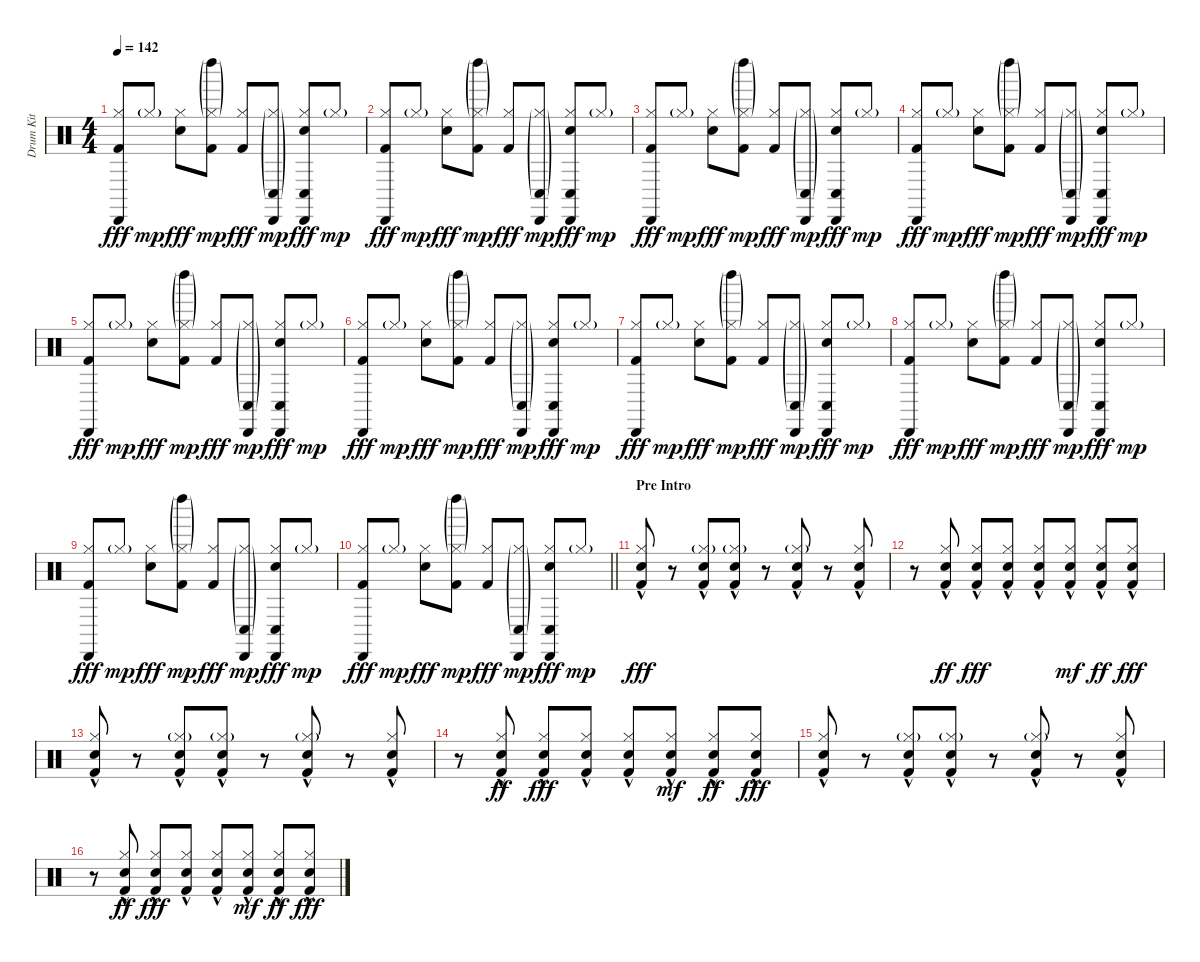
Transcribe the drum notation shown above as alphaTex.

\track ("Drum Kit" "Drum Kit") {instrument percussion}
\staff {score}
\articulation defaults
\ts (4 4)
\tempo 142
\clef neutral
\ks c
("Cabasa (hit)" "Kick (hit) 2" "Hi-Hat (closed)").8{dy fff} "Hi-Hat (closed)"{g}.8{dy mp} ("Snare (hit) 2" "Hi-Hat (closed)").8{dy fff} ("Kick (hit) 2" "Left Maraca (hit)"{g} "Hi-Hat (closed)"{g}).8{dy mp} ("Kick (hit) 2" "Hi-Hat (closed)").8{dy fff} ("Cabasa (hit)" "Conga low (hit)"{g} "Hi-Hat (closed)"{g}).8{dy mp} ("Conga low (hit)" "Snare (hit) 2" "Cabasa (hit)" "Hi-Hat (closed)").8{dy fff} "Hi-Hat (closed)"{g}.8{dy mp} |
("Cabasa (hit)" "Kick (hit) 2" "Hi-Hat (closed)").8{dy fff} "Hi-Hat (closed)"{g}.8{dy mp} ("Snare (hit) 2" "Hi-Hat (closed)").8{dy fff} ("Kick (hit) 2" "Left Maraca (hit)"{g} "Hi-Hat (closed)"{g}).8{dy mp} ("Kick (hit) 2" "Hi-Hat (closed)").8{dy fff} ("Cabasa (hit)" "Conga low (hit)"{g} "Hi-Hat (closed)"{g}).8{dy mp} ("Conga low (hit)" "Snare (hit) 2" "Cabasa (hit)" "Hi-Hat (closed)").8{dy fff} "Hi-Hat (closed)"{g}.8{dy mp} |
("Cabasa (hit)" "Kick (hit) 2" "Hi-Hat (closed)").8{dy fff} "Hi-Hat (closed)"{g}.8{dy mp} ("Snare (hit) 2" "Hi-Hat (closed)").8{dy fff} ("Kick (hit) 2" "Left Maraca (hit)"{g} "Hi-Hat (closed)"{g}).8{dy mp} ("Kick (hit) 2" "Hi-Hat (closed)").8{dy fff} ("Cabasa (hit)" "Conga low (hit)"{g} "Hi-Hat (closed)"{g}).8{dy mp} ("Conga low (hit)" "Snare (hit) 2" "Cabasa (hit)" "Hi-Hat (closed)").8{dy fff} "Hi-Hat (closed)"{g}.8{dy mp} |
("Cabasa (hit)" "Kick (hit) 2" "Hi-Hat (closed)").8{dy fff} "Hi-Hat (closed)"{g}.8{dy mp} ("Snare (hit) 2" "Hi-Hat (closed)").8{dy fff} ("Kick (hit) 2" "Left Maraca (hit)"{g} "Hi-Hat (closed)"{g}).8{dy mp} ("Kick (hit) 2" "Hi-Hat (closed)").8{dy fff} ("Cabasa (hit)" "Conga low (hit)"{g} "Hi-Hat (closed)"{g}).8{dy mp} ("Conga low (hit)" "Snare (hit) 2" "Cabasa (hit)" "Hi-Hat (closed)").8{dy fff} "Hi-Hat (closed)"{g}.8{dy mp} |
("Cabasa (hit)" "Kick (hit) 2" "Hi-Hat (closed)").8{dy fff} "Hi-Hat (closed)"{g}.8{dy mp} ("Snare (hit) 2" "Hi-Hat (closed)").8{dy fff} ("Kick (hit) 2" "Left Maraca (hit)"{g} "Hi-Hat (closed)"{g}).8{dy mp} ("Kick (hit) 2" "Hi-Hat (closed)").8{dy fff} ("Cabasa (hit)" "Conga low (hit)"{g} "Hi-Hat (closed)"{g}).8{dy mp} ("Conga low (hit)" "Snare (hit) 2" "Cabasa (hit)" "Hi-Hat (closed)").8{dy fff} "Hi-Hat (closed)"{g}.8{dy mp} |
("Cabasa (hit)" "Kick (hit) 2" "Hi-Hat (closed)").8{dy fff} "Hi-Hat (closed)"{g}.8{dy mp} ("Snare (hit) 2" "Hi-Hat (closed)").8{dy fff} ("Kick (hit) 2" "Left Maraca (hit)"{g} "Hi-Hat (closed)"{g}).8{dy mp} ("Kick (hit) 2" "Hi-Hat (closed)").8{dy fff} ("Cabasa (hit)" "Conga low (hit)"{g} "Hi-Hat (closed)"{g}).8{dy mp} ("Conga low (hit)" "Snare (hit) 2" "Cabasa (hit)" "Hi-Hat (closed)").8{dy fff} "Hi-Hat (closed)"{g}.8{dy mp} |
("Cabasa (hit)" "Kick (hit) 2" "Hi-Hat (closed)").8{dy fff} "Hi-Hat (closed)"{g}.8{dy mp} ("Snare (hit) 2" "Hi-Hat (closed)").8{dy fff} ("Kick (hit) 2" "Left Maraca (hit)"{g} "Hi-Hat (closed)"{g}).8{dy mp} ("Kick (hit) 2" "Hi-Hat (closed)").8{dy fff} ("Cabasa (hit)" "Conga low (hit)"{g} "Hi-Hat (closed)"{g}).8{dy mp} ("Conga low (hit)" "Snare (hit) 2" "Cabasa (hit)" "Hi-Hat (closed)").8{dy fff} "Hi-Hat (closed)"{g}.8{dy mp} |
("Cabasa (hit)" "Kick (hit) 2" "Hi-Hat (closed)").8{dy fff} "Hi-Hat (closed)"{g}.8{dy mp} ("Snare (hit) 2" "Hi-Hat (closed)").8{dy fff} ("Kick (hit) 2" "Left Maraca (hit)"{g} "Hi-Hat (closed)"{g}).8{dy mp} ("Kick (hit) 2" "Hi-Hat (closed)").8{dy fff} ("Cabasa (hit)" "Conga low (hit)"{g} "Hi-Hat (closed)"{g}).8{dy mp} ("Conga low (hit)" "Snare (hit) 2" "Cabasa (hit)" "Hi-Hat (closed)").8{dy fff} "Hi-Hat (closed)"{g}.8{dy mp} |
("Cabasa (hit)" "Kick (hit) 2" "Hi-Hat (closed)").8{dy fff} "Hi-Hat (closed)"{g}.8{dy mp} ("Snare (hit) 2" "Hi-Hat (closed)").8{dy fff} ("Kick (hit) 2" "Left Maraca (hit)"{g} "Hi-Hat (closed)"{g}).8{dy mp} ("Kick (hit) 2" "Hi-Hat (closed)").8{dy fff} ("Cabasa (hit)" "Conga low (hit)"{g} "Hi-Hat (closed)"{g}).8{dy mp} ("Conga low (hit)" "Snare (hit) 2" "Cabasa (hit)" "Hi-Hat (closed)").8{dy fff} "Hi-Hat (closed)"{g}.8{dy mp} |
\barLineRight lightlight
("Cabasa (hit)" "Kick (hit) 2" "Hi-Hat (closed)").8{dy fff} "Hi-Hat (closed)"{g}.8{dy mp} ("Snare (hit) 2" "Hi-Hat (closed)").8{dy fff} ("Kick (hit) 2" "Left Maraca (hit)"{g} "Hi-Hat (closed)"{g}).8{dy mp} ("Kick (hit) 2" "Hi-Hat (closed)").8{dy fff} ("Cabasa (hit)" "Conga low (hit)"{g} "Hi-Hat (closed)"{g}).8{dy mp} ("Conga low (hit)" "Snare (hit) 2" "Cabasa (hit)" "Hi-Hat (closed)").8{dy fff} "Hi-Hat (closed)"{g}.8{dy mp} |
\section ("" "Pre Intro")
("Kick (hit) 2" "Hi-Hat (closed)" "Snare (hit) 2"{hac}).8{dy fff} r.8 ("Kick (hit) 2" "Hi-Hat (closed)"{g} "Snare (hit) 2"{hac}).8 ("Kick (hit) 2" "Hi-Hat (closed)"{g} "Snare (hit) 2"{hac}).8 r.8 ("Kick (hit) 2" "Hi-Hat (closed)"{g} "Snare (hit) 2"{hac}).8 r.8 ("Kick (hit) 2" "Hi-Hat (closed)" "Snare (hit) 2"{hac}).8 |
r.8 ("Kick (hit) 2" "Snare (hit) 2"{hac} "Hi-Hat (closed)").8{dy ff} ("Kick (hit) 2" "Snare (hit) 2"{hac} "Hi-Hat (closed)").8{dy fff} ("Kick (hit) 2" "Snare (hit) 2"{hac} "Hi-Hat (closed)").8 ("Kick (hit) 2" "Snare (hit) 2"{hac} "Hi-Hat (closed)").8 ("Kick (hit) 2" "Snare (hit) 2"{hac} "Hi-Hat (closed)").8{dy mf} ("Hi-Hat (closed)" "Kick (hit) 2" "Snare (hit) 2"{hac}).8{dy ff} ("Hi-Hat (closed)" "Kick (hit) 2" "Snare (hit) 2"{hac}).8{dy fff} |
("Kick (hit) 2" "Hi-Hat (closed)" "Snare (hit) 2"{hac}).8 r.8 ("Kick (hit) 2" "Hi-Hat (closed)"{g} "Snare (hit) 2"{hac}).8 ("Kick (hit) 2" "Hi-Hat (closed)"{g} "Snare (hit) 2"{hac}).8 r.8 ("Kick (hit) 2" "Hi-Hat (closed)"{g} "Snare (hit) 2"{hac}).8 r.8 ("Kick (hit) 2" "Hi-Hat (closed)" "Snare (hit) 2"{hac}).8 |
r.8 ("Kick (hit) 2" "Snare (hit) 2"{hac} "Hi-Hat (closed)").8{dy ff} ("Kick (hit) 2" "Snare (hit) 2"{hac} "Hi-Hat (closed)").8{dy fff} ("Kick (hit) 2" "Snare (hit) 2"{hac} "Hi-Hat (closed)").8 ("Kick (hit) 2" "Snare (hit) 2"{hac} "Hi-Hat (closed)").8 ("Kick (hit) 2" "Snare (hit) 2"{hac} "Hi-Hat (closed)").8{dy mf} ("Hi-Hat (closed)" "Kick (hit) 2" "Snare (hit) 2"{hac}).8{dy ff} ("Hi-Hat (closed)" "Kick (hit) 2" "Snare (hit) 2"{hac}).8{dy fff} |
("Kick (hit) 2" "Hi-Hat (closed)" "Snare (hit) 2"{hac}).8 r.8 ("Kick (hit) 2" "Hi-Hat (closed)"{g} "Snare (hit) 2"{hac}).8 ("Kick (hit) 2" "Hi-Hat (closed)"{g} "Snare (hit) 2"{hac}).8 r.8 ("Kick (hit) 2" "Hi-Hat (closed)"{g} "Snare (hit) 2"{hac}).8 r.8 ("Kick (hit) 2" "Hi-Hat (closed)" "Snare (hit) 2"{hac}).8 |
r.8 ("Kick (hit) 2" "Snare (hit) 2"{hac} "Hi-Hat (closed)").8{dy ff} ("Kick (hit) 2" "Snare (hit) 2"{hac} "Hi-Hat (closed)").8{dy fff} ("Kick (hit) 2" "Snare (hit) 2"{hac} "Hi-Hat (closed)").8 ("Kick (hit) 2" "Snare (hit) 2"{hac} "Hi-Hat (closed)").8 ("Kick (hit) 2" "Snare (hit) 2"{hac} "Hi-Hat (closed)").8{dy mf} ("Hi-Hat (closed)" "Kick (hit) 2" "Snare (hit) 2"{hac}).8{dy ff} ("Hi-Hat (closed)" "Kick (hit) 2" "Snare (hit) 2"{hac}).8{dy fff}
